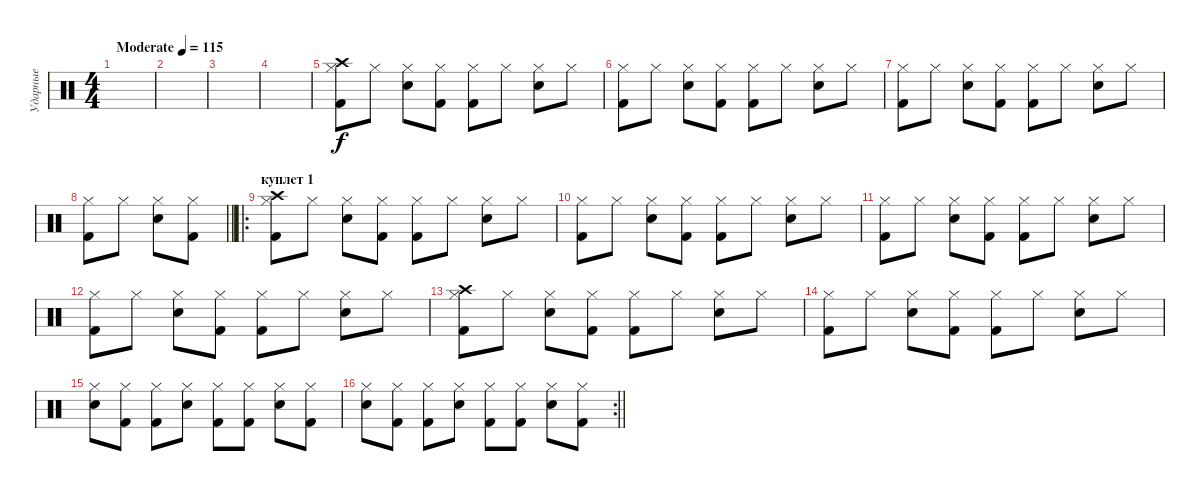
\track ("Ударные" "Ударные") {instrument percussion}
\staff {score}
\articulation defaults
\ts (4 4)
\tempo (115 "Moderate")
\clef neutral
\ks c
|
|
|
|
("Hi-Hat (closed)" "Kick (hit) 2" "Crash high (hit)").8 "Hi-Hat (closed)".8 ("Hi-Hat (closed)" "Snare (hit) 2").8 ("Hi-Hat (closed)" "Kick (hit) 2").8 ("Hi-Hat (closed)" "Kick (hit) 2").8 "Hi-Hat (closed)".8 ("Hi-Hat (closed)" "Snare (hit) 2").8 "Hi-Hat (closed)".8 |
("Hi-Hat (closed)" "Kick (hit) 2").8 "Hi-Hat (closed)".8 ("Hi-Hat (closed)" "Snare (hit) 2").8 ("Hi-Hat (closed)" "Kick (hit) 2").8 ("Hi-Hat (closed)" "Kick (hit) 2").8 "Hi-Hat (closed)".8 ("Hi-Hat (closed)" "Snare (hit) 2").8 "Hi-Hat (closed)".8 |
("Hi-Hat (closed)" "Kick (hit) 2").8 "Hi-Hat (closed)".8 ("Hi-Hat (closed)" "Snare (hit) 2").8 ("Hi-Hat (closed)" "Kick (hit) 2").8 ("Hi-Hat (closed)" "Kick (hit) 2").8 "Hi-Hat (closed)".8 ("Hi-Hat (closed)" "Snare (hit) 2").8 "Hi-Hat (closed)".8 |
\barLineRight lightlight
("Hi-Hat (closed)" "Kick (hit) 2").8 "Hi-Hat (closed)".8 ("Hi-Hat (closed)" "Snare (hit) 2").8 ("Hi-Hat (closed)" "Kick (hit) 2").8 |
\ro
\section ("" "куплет 1")
("Hi-Hat (closed)" "Kick (hit) 2" "Crash high (hit)").8 "Hi-Hat (closed)".8 ("Hi-Hat (closed)" "Snare (hit) 2").8 ("Hi-Hat (closed)" "Kick (hit) 2").8 ("Hi-Hat (closed)" "Kick (hit) 2").8 "Hi-Hat (closed)".8 ("Hi-Hat (closed)" "Snare (hit) 2").8 "Hi-Hat (closed)".8 |
("Hi-Hat (closed)" "Kick (hit) 2").8 "Hi-Hat (closed)".8 ("Hi-Hat (closed)" "Snare (hit) 2").8 ("Hi-Hat (closed)" "Kick (hit) 2").8 ("Hi-Hat (closed)" "Kick (hit) 2").8 "Hi-Hat (closed)".8 ("Hi-Hat (closed)" "Snare (hit) 2").8 "Hi-Hat (closed)".8 |
("Hi-Hat (closed)" "Kick (hit) 2").8 "Hi-Hat (closed)".8 ("Hi-Hat (closed)" "Snare (hit) 2").8 ("Hi-Hat (closed)" "Kick (hit) 2").8 ("Hi-Hat (closed)" "Kick (hit) 2").8 "Hi-Hat (closed)".8 ("Hi-Hat (closed)" "Snare (hit) 2").8 "Hi-Hat (closed)".8 |
("Hi-Hat (closed)" "Kick (hit) 2").8 "Hi-Hat (closed)".8 ("Hi-Hat (closed)" "Snare (hit) 2").8 ("Hi-Hat (closed)" "Kick (hit) 2").8 ("Hi-Hat (closed)" "Kick (hit) 2").8 "Hi-Hat (closed)".8 ("Hi-Hat (closed)" "Snare (hit) 2").8 "Hi-Hat (closed)".8 |
("Hi-Hat (closed)" "Kick (hit) 2" "Crash high (hit)").8 "Hi-Hat (closed)".8 ("Hi-Hat (closed)" "Snare (hit) 2").8 ("Hi-Hat (closed)" "Kick (hit) 2").8 ("Hi-Hat (closed)" "Kick (hit) 2").8 "Hi-Hat (closed)".8 ("Hi-Hat (closed)" "Snare (hit) 2").8 "Hi-Hat (closed)".8 |
("Hi-Hat (closed)" "Kick (hit) 2").8 "Hi-Hat (closed)".8 ("Hi-Hat (closed)" "Snare (hit) 2").8 ("Hi-Hat (closed)" "Kick (hit) 2").8 ("Hi-Hat (closed)" "Kick (hit) 2").8 "Hi-Hat (closed)".8 ("Hi-Hat (closed)" "Snare (hit) 2").8 "Hi-Hat (closed)".8 |
("Hi-Hat (closed)" "Snare (hit) 2").8 ("Hi-Hat (closed)" "Kick (hit) 2").8 ("Hi-Hat (closed)" "Kick (hit) 2").8 ("Hi-Hat (closed)" "Snare (hit) 2").8 ("Hi-Hat (closed)" "Kick (hit) 2").8 ("Hi-Hat (closed)" "Kick (hit) 2").8 ("Hi-Hat (closed)" "Snare (hit) 2").8 ("Hi-Hat (closed)" "Kick (hit) 2").8 |
\rc 2
\barLineRight lightlight
("Hi-Hat (closed)" "Snare (hit) 2").8 ("Hi-Hat (closed)" "Kick (hit) 2").8 ("Hi-Hat (closed)" "Kick (hit) 2").8 ("Hi-Hat (closed)" "Snare (hit) 2").8 ("Hi-Hat (closed)" "Kick (hit) 2").8 ("Hi-Hat (closed)" "Kick (hit) 2").8 ("Hi-Hat (closed)" "Snare (hit) 2").8 ("Hi-Hat (closed)" "Kick (hit) 2").8
